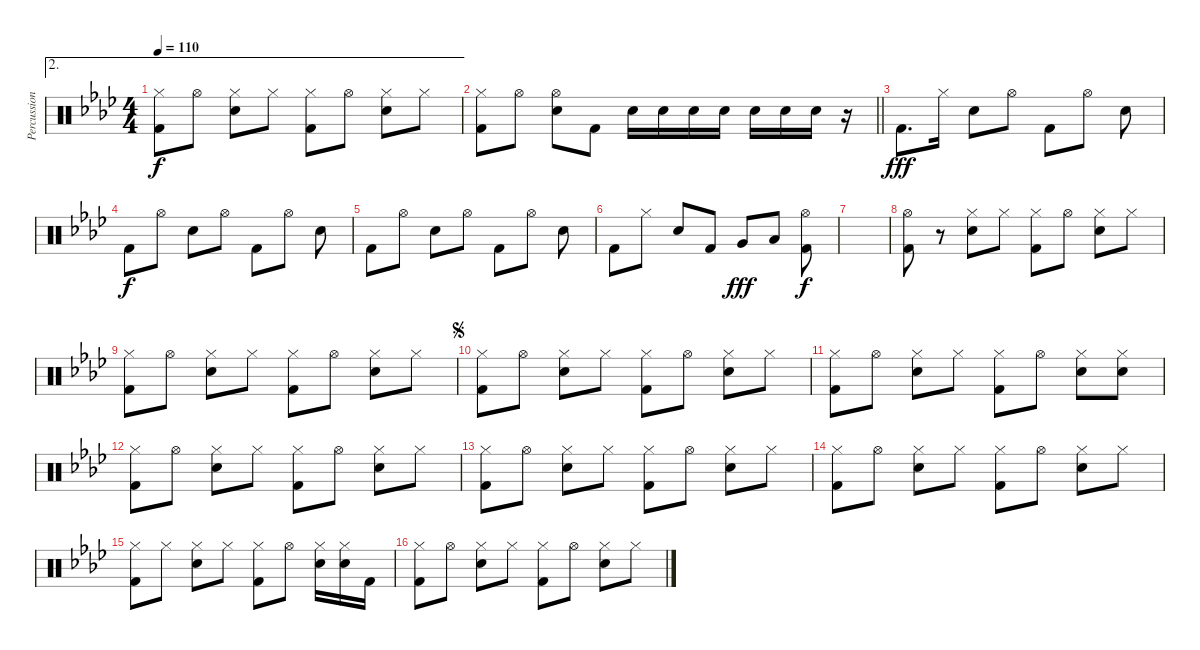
\track ("Percussions" "Percussion") {instrument percussion}
\staff {score}
\articulation defaults
\ae 2
\ts (4 4)
\tempo 110
\clef neutral
\ks ab
("Hi-Hat (closed)" "Kick (hit) 2").8{dy f} "Hi-Hat (open)".8 ("Hi-Hat (closed)" "Electric Snare (hit)").8 "Hi-Hat (closed)".8 ("Hi-Hat (closed)" "Kick (hit) 2").8 "Hi-Hat (open)".8 ("Hi-Hat (closed)" "Electric Snare (hit)").8 "Hi-Hat (closed)".8 |
\barLineRight lightlight
("Hi-Hat (closed)" "Kick (hit) 2").8 "Hi-Hat (open)".8 ("Electric Snare (hit)" "Hi-Hat (open)").8 "Kick (hit) 2".8 "Electric Snare (hit)".16 "Electric Snare (hit)".16 "Electric Snare (hit)".16 "Electric Snare (hit)".16 "Electric Snare (hit)".16 "Electric Snare (hit)".16 "Electric Snare (hit)".16 r.16 |
"Kick (hit) 2".8{d dy fff} "Hi-Hat (closed)".16 "Electric Snare (hit)".8 "Hi-Hat (open)".8 "Kick (hit) 2".8 "Hi-Hat (open)".8 "Electric Snare (hit)".8 |
"Kick (hit) 2".8{dy f} "Hi-Hat (open)".8 "Electric Snare (hit)".8 "Hi-Hat (open)".8 "Kick (hit) 2".8 "Hi-Hat (open)".8 "Electric Snare (hit)".8 |
"Kick (hit) 2".8 "Hi-Hat (open)".8 "Electric Snare (hit)".8 "Hi-Hat (open)".8 "Kick (hit) 2".8 "Hi-Hat (open)".8 "Electric Snare (hit)".8 |
"Kick (hit) 2".8 "Hi-Hat (closed)".8 "Electric Snare (hit)".8 "Kick (hit) 2".8 "Very Low Tom (hit)".8{dy fff} "Low Floor Tom (hit)".8 ("Kick (hit) 2" "Hi-Hat (open)").8{dy f} |
|
("Hi-Hat (open)" "Kick (hit) 2").8 r.8 ("Hi-Hat (closed)" "Electric Snare (hit)").8 "Hi-Hat (closed)".8 ("Kick (hit) 2" "Hi-Hat (closed)").8 "Hi-Hat (open)".8 ("Hi-Hat (closed)" "Electric Snare (hit)").8 "Hi-Hat (closed)".8 |
("Hi-Hat (closed)" "Kick (hit) 2").8 "Hi-Hat (open)".8 ("Hi-Hat (closed)" "Electric Snare (hit)").8 "Hi-Hat (closed)".8 ("Hi-Hat (closed)" "Kick (hit) 2").8 "Hi-Hat (open)".8 ("Hi-Hat (closed)" "Electric Snare (hit)").8 "Hi-Hat (closed)".8 |
\jump segno
("Hi-Hat (closed)" "Kick (hit) 2").8 "Hi-Hat (open)".8 ("Hi-Hat (closed)" "Electric Snare (hit)").8 "Hi-Hat (closed)".8 ("Hi-Hat (closed)" "Kick (hit) 2").8 "Hi-Hat (open)".8 ("Hi-Hat (closed)" "Electric Snare (hit)").8 "Hi-Hat (closed)".8 |
("Hi-Hat (closed)" "Kick (hit) 2").8 "Hi-Hat (open)".8 ("Hi-Hat (closed)" "Electric Snare (hit)").8 "Hi-Hat (closed)".8 ("Hi-Hat (closed)" "Kick (hit) 2").8 "Hi-Hat (open)".8 ("Hi-Hat (closed)" "Electric Snare (hit)").8 ("Hi-Hat (closed)" "Electric Snare (hit)").8 |
("Hi-Hat (closed)" "Kick (hit) 2").8 "Hi-Hat (open)".8 ("Hi-Hat (closed)" "Electric Snare (hit)").8 "Hi-Hat (closed)".8 ("Hi-Hat (closed)" "Kick (hit) 2").8 "Hi-Hat (open)".8 ("Hi-Hat (closed)" "Electric Snare (hit)").8 "Hi-Hat (closed)".8 |
("Hi-Hat (closed)" "Kick (hit) 2").8 "Hi-Hat (open)".8 ("Hi-Hat (closed)" "Electric Snare (hit)").8 "Hi-Hat (closed)".8 ("Hi-Hat (closed)" "Kick (hit) 2").8 "Hi-Hat (open)".8 ("Hi-Hat (closed)" "Electric Snare (hit)").8 "Hi-Hat (closed)".8 |
("Hi-Hat (closed)" "Kick (hit) 2").8 "Hi-Hat (open)".8 ("Hi-Hat (closed)" "Electric Snare (hit)").8 "Hi-Hat (closed)".8 ("Hi-Hat (closed)" "Kick (hit) 2").8 "Hi-Hat (open)".8 ("Hi-Hat (closed)" "Electric Snare (hit)").8 "Hi-Hat (closed)".8 |
("Hi-Hat (closed)" "Kick (hit) 2").8 "Hi-Hat (closed)".8 ("Hi-Hat (closed)" "Electric Snare (hit)").8 "Hi-Hat (closed)".8 ("Hi-Hat (closed)" "Kick (hit) 2").8 "Hi-Hat (open)".8 ("Hi-Hat (closed)" "Electric Snare (hit)").16 ("Hi-Hat (closed)" "Electric Snare (hit)").16 "Kick (hit) 2".16 |
("Hi-Hat (closed)" "Kick (hit) 2").8 "Hi-Hat (open)".8 ("Hi-Hat (closed)" "Electric Snare (hit)").8 "Hi-Hat (closed)".8 ("Hi-Hat (closed)" "Kick (hit) 2").8 "Hi-Hat (open)".8 ("Hi-Hat (closed)" "Electric Snare (hit)").8 "Hi-Hat (closed)".8
